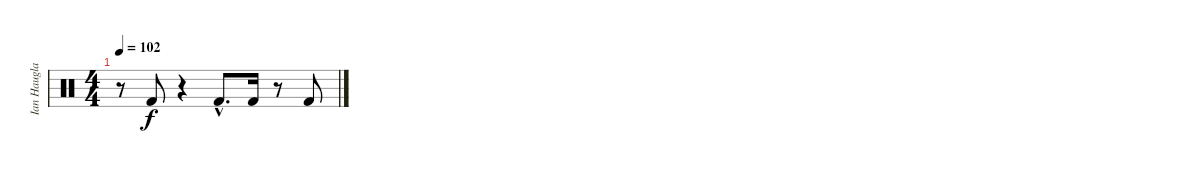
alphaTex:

\track ("Ian Haugland Drums" "Ian Haugla") {instrument percussion}
\staff {score}
\articulation defaults
\ts (4 4)
\tempo 102
\clef neutral
\ks c
r.8{dy f} "Kick (hit) 2".8 r.4 "Kick (hit) 2"{hac}.8{d} "Kick (hit) 2".16 r.8 "Kick (hit) 2".8
